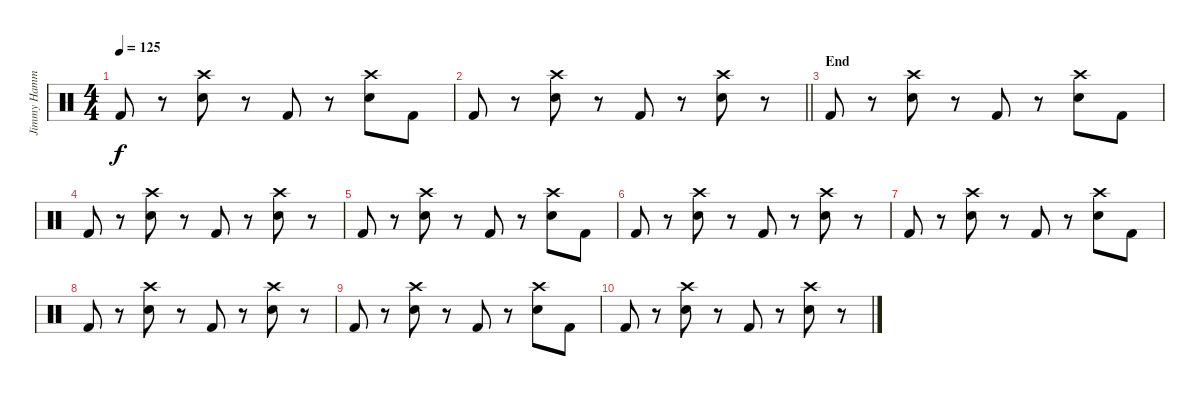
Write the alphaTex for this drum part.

\track ("Jimmy Hammer" "Jimmy Hamm") {instrument percussion}
\staff {score}
\articulation defaults
\ts (4 4)
\tempo 125
\clef neutral
\ks c "Kick (hit) 2".8{dy f}
r.8 ("Electric Snare (hit)" "Crash high (hit)").8 r.8 "Kick (hit) 2".8 r.8 ("Electric Snare (hit)" "Crash high (hit)").8 "Kick (hit) 2".8 |
\barLineRight lightlight "Kick (hit) 2".8
r.8 ("Electric Snare (hit)" "Crash high (hit)").8 r.8 "Kick (hit) 2".8 r.8 ("Electric Snare (hit)" "Crash high (hit)").8 r.8 |
\section ("" "End")
"Kick (hit) 2".8 r.8 ("Electric Snare (hit)" "Crash high (hit)").8 r.8 "Kick (hit) 2".8 r.8 ("Electric Snare (hit)" "Crash high (hit)").8 "Kick (hit) 2".8 |
"Kick (hit) 2".8 r.8 ("Electric Snare (hit)" "Crash high (hit)").8 r.8 "Kick (hit) 2".8 r.8 ("Electric Snare (hit)" "Crash high (hit)").8 r.8 |
"Kick (hit) 2".8 r.8 ("Electric Snare (hit)" "Crash high (hit)").8 r.8 "Kick (hit) 2".8 r.8 ("Electric Snare (hit)" "Crash high (hit)").8 "Kick (hit) 2".8 |
"Kick (hit) 2".8 r.8 ("Electric Snare (hit)" "Crash high (hit)").8 r.8 "Kick (hit) 2".8 r.8 ("Electric Snare (hit)" "Crash high (hit)").8 r.8 |
"Kick (hit) 2".8{volume 11} r.8 ("Electric Snare (hit)" "Crash high (hit)").8 r.8 "Kick (hit) 2".8 r.8 ("Electric Snare (hit)" "Crash high (hit)").8 "Kick (hit) 2".8 |
"Kick (hit) 2".8{volume 8} r.8 ("Electric Snare (hit)" "Crash high (hit)").8 r.8 "Kick (hit) 2".8 r.8 ("Electric Snare (hit)" "Crash high (hit)").8 r.8 |
"Kick (hit) 2".8{volume 5} r.8 ("Electric Snare (hit)" "Crash high (hit)").8 r.8 "Kick (hit) 2".8 r.8 ("Electric Snare (hit)" "Crash high (hit)").8 "Kick (hit) 2".8 |
"Kick (hit) 2".8{volume 0} r.8 ("Electric Snare (hit)" "Crash high (hit)").8 r.8 "Kick (hit) 2".8 r.8 ("Electric Snare (hit)" "Crash high (hit)").8 r.8
